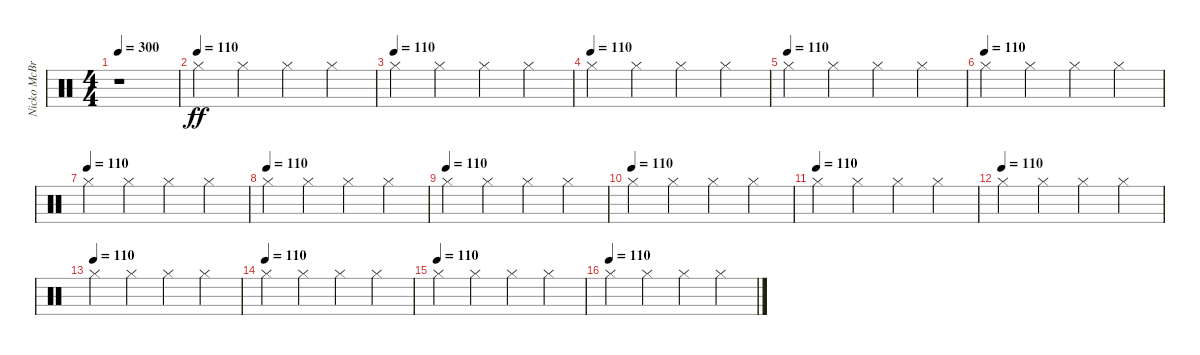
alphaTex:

\track ("Nicko McBrain" "Nicko McBr") {instrument percussion}
\staff {score}
\articulation defaults
\ts (4 4)
\tempo 300
\tempo 110
\tempo 300
\clef neutral
\ks c
r.1{dy ff} |
\tempo (110)
"Hi-Hat (closed)".4 "Hi-Hat (closed)".4 "Hi-Hat (closed)".4 "Hi-Hat (closed)".4 |
\tempo (110)
"Hi-Hat (closed)".4 "Hi-Hat (closed)".4 "Hi-Hat (closed)".4 "Hi-Hat (closed)".4 |
\tempo (110)
"Hi-Hat (closed)".4 "Hi-Hat (closed)".4 "Hi-Hat (closed)".4 "Hi-Hat (closed)".4 |
\tempo (110)
"Hi-Hat (closed)".4 "Hi-Hat (closed)".4 "Hi-Hat (closed)".4 "Hi-Hat (closed)".4 |
\tempo (110)
"Hi-Hat (closed)".4 "Hi-Hat (closed)".4 "Hi-Hat (closed)".4 "Hi-Hat (closed)".4 |
\tempo (110)
"Hi-Hat (closed)".4 "Hi-Hat (closed)".4 "Hi-Hat (closed)".4 "Hi-Hat (closed)".4 |
\tempo (110)
"Hi-Hat (closed)".4 "Hi-Hat (closed)".4 "Hi-Hat (closed)".4 "Hi-Hat (closed)".4 |
\tempo (110)
"Hi-Hat (closed)".4 "Hi-Hat (closed)".4 "Hi-Hat (closed)".4 "Hi-Hat (closed)".4 |
\tempo (110)
"Hi-Hat (closed)".4 "Hi-Hat (closed)".4 "Hi-Hat (closed)".4 "Hi-Hat (closed)".4 |
\tempo (110)
"Hi-Hat (closed)".4 "Hi-Hat (closed)".4 "Hi-Hat (closed)".4 "Hi-Hat (closed)".4 |
\tempo (110)
"Hi-Hat (closed)".4 "Hi-Hat (closed)".4 "Hi-Hat (closed)".4 "Hi-Hat (closed)".4 |
\tempo (110)
"Hi-Hat (closed)".4 "Hi-Hat (closed)".4 "Hi-Hat (closed)".4 "Hi-Hat (closed)".4 |
\tempo (110)
"Hi-Hat (closed)".4 "Hi-Hat (closed)".4 "Hi-Hat (closed)".4 "Hi-Hat (closed)".4 |
\tempo (110)
"Hi-Hat (closed)".4 "Hi-Hat (closed)".4 "Hi-Hat (closed)".4 "Hi-Hat (closed)".4 |
\tempo (110)
"Hi-Hat (closed)".4 "Hi-Hat (closed)".4 "Hi-Hat (closed)".4 "Hi-Hat (closed)".4
